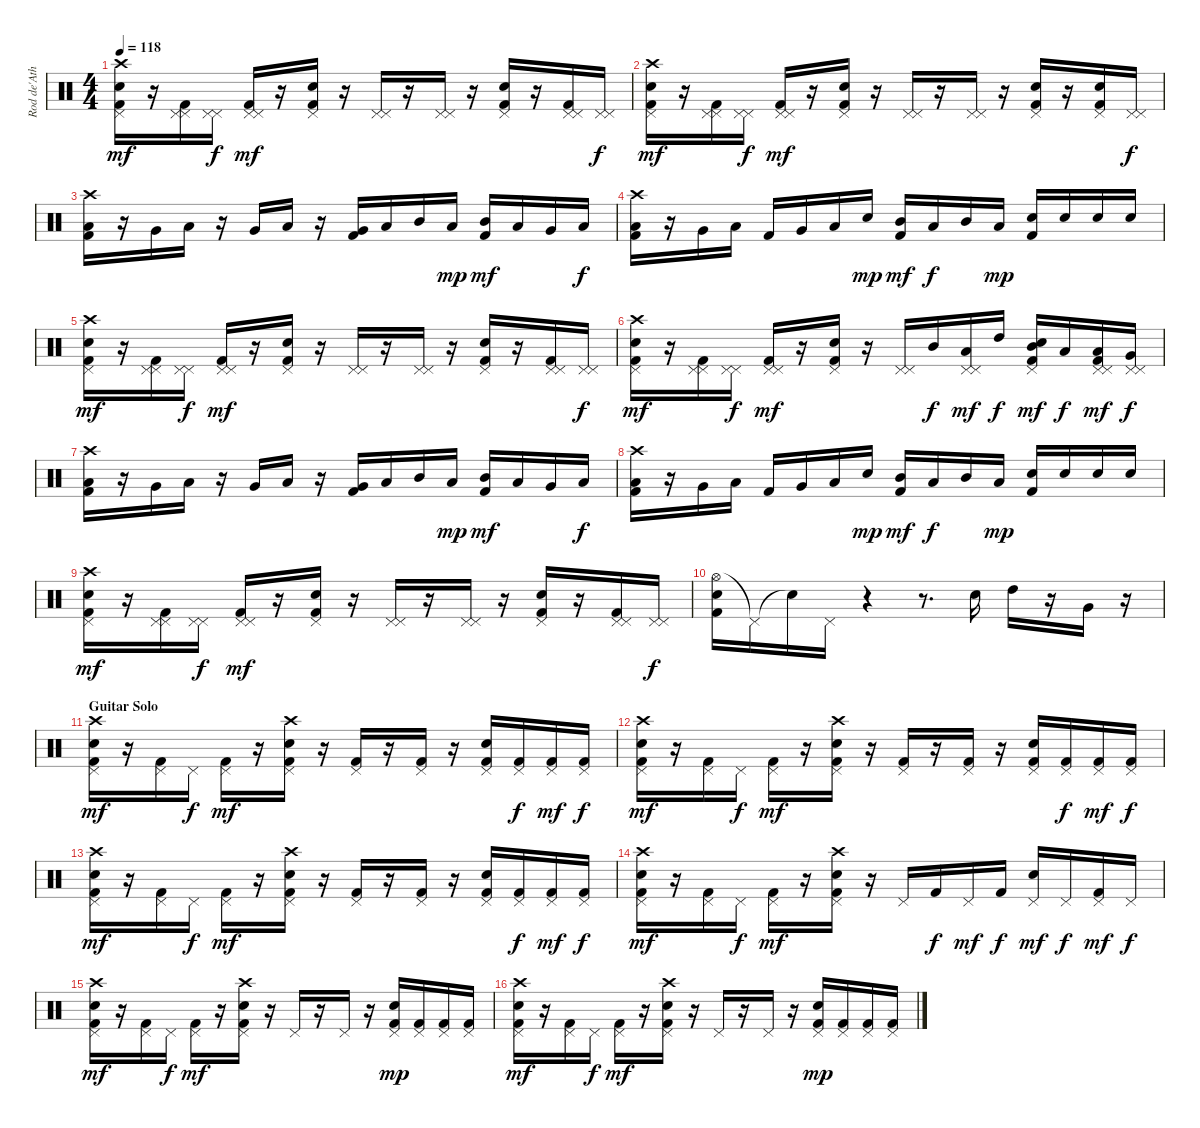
\track ("Rod de'Ath" "Rod de'Ath") {instrument percussion}
\staff {score}
\articulation defaults
\ts (4 4)
\tempo 118
\clef neutral
\ks c
("Crash high (hit)" "Snare (hit) 2" "Pedal Hi-Hat (hit)" "Kick (hit) 2").16{dy mf} r.16 ("Pedal Hi-Hat (hit)" "Pedal Hi-Hat (hit)" "Kick (hit) 2").16 ("Pedal Hi-Hat (hit)" "Pedal Hi-Hat (hit)").16{dy f} ("Pedal Hi-Hat (hit)" "Pedal Hi-Hat (hit)" "Kick (hit) 2").16{dy mf} r.16 ("Snare (hit) 2" "Pedal Hi-Hat (hit)" "Kick (hit) 2").16 r.16 ("Pedal Hi-Hat (hit)" "Pedal Hi-Hat (hit)").16 r.16 ("Pedal Hi-Hat (hit)" "Pedal Hi-Hat (hit)").16 r.16 ("Snare (hit) 2" "Pedal Hi-Hat (hit)" "Kick (hit) 2").16 r.16 ("Pedal Hi-Hat (hit)" "Pedal Hi-Hat (hit)" "Kick (hit) 2").16 ("Pedal Hi-Hat (hit)" "Pedal Hi-Hat (hit)").16{dy f} |
("Crash high (hit)" "Snare (hit) 2" "Pedal Hi-Hat (hit)" "Kick (hit) 2").16{dy mf} r.16 ("Pedal Hi-Hat (hit)" "Pedal Hi-Hat (hit)" "Kick (hit) 2").16 ("Pedal Hi-Hat (hit)" "Pedal Hi-Hat (hit)").16{dy f} ("Pedal Hi-Hat (hit)" "Pedal Hi-Hat (hit)" "Kick (hit) 2").16{dy mf} r.16 ("Snare (hit) 2" "Pedal Hi-Hat (hit)" "Kick (hit) 2").16 r.16 ("Pedal Hi-Hat (hit)" "Pedal Hi-Hat (hit)").16 r.16 ("Pedal Hi-Hat (hit)" "Pedal Hi-Hat (hit)").16 r.16 ("Snare (hit) 2" "Pedal Hi-Hat (hit)" "Kick (hit) 2").16 r.16 ("Snare (hit) 2" "Pedal Hi-Hat (hit)" "Kick (hit) 2").16 ("Pedal Hi-Hat (hit)" "Pedal Hi-Hat (hit)").16{dy f} |
("Crash high (hit)" "Low Tom (hit)" "Kick (hit) 2").16 r.16 "Very Low Tom (hit)".16 "Low Tom (hit)".16 r.16 "Very Low Tom (hit)".16 "Low Tom (hit)".16 r.16 ("Very Low Tom (hit)" "Kick (hit) 2").16 "Low Tom (hit)".16 "Mid Tom (hit)".16 "Low Tom (hit)".16{dy mp} ("Mid Tom (hit)" "Kick (hit) 2").16{dy mf} "Low Tom (hit)".16 "Very Low Tom (hit)".16 "Low Tom (hit)".16{dy f} |
("Crash high (hit)" "Low Tom (hit)" "Kick (hit) 2").16 r.16 "Very Low Tom (hit)".16 "Low Tom (hit)".16 "Kick (hit) 2".16 "Very Low Tom (hit)".16 "Low Tom (hit)".16 "Snare (hit) 2".16{dy mp} ("Mid Tom (hit)" "Kick (hit) 2").16{dy mf} "Low Tom (hit)".16{dy f} "Mid Tom (hit)".16 "Low Tom (hit)".16{dy mp} ("Snare (hit) 2" "Kick (hit) 2").16 "Snare (hit) 2".16 "Snare (hit) 2".16 "Snare (hit) 2".16 |
("Crash high (hit)" "Snare (hit) 2" "Pedal Hi-Hat (hit)" "Kick (hit) 2").16{dy mf} r.16 ("Pedal Hi-Hat (hit)" "Pedal Hi-Hat (hit)" "Kick (hit) 2").16 ("Pedal Hi-Hat (hit)" "Pedal Hi-Hat (hit)").16{dy f} ("Pedal Hi-Hat (hit)" "Pedal Hi-Hat (hit)" "Kick (hit) 2").16{dy mf} r.16 ("Snare (hit) 2" "Pedal Hi-Hat (hit)" "Kick (hit) 2").16 r.16 ("Pedal Hi-Hat (hit)" "Pedal Hi-Hat (hit)").16 r.16 ("Pedal Hi-Hat (hit)" "Pedal Hi-Hat (hit)").16 r.16 ("Snare (hit) 2" "Pedal Hi-Hat (hit)" "Kick (hit) 2").16 r.16 ("Pedal Hi-Hat (hit)" "Pedal Hi-Hat (hit)" "Kick (hit) 2").16 ("Pedal Hi-Hat (hit)" "Pedal Hi-Hat (hit)").16{dy f} |
("Crash high (hit)" "Snare (hit) 2" "Pedal Hi-Hat (hit)" "Kick (hit) 2").16{dy mf} r.16 ("Pedal Hi-Hat (hit)" "Pedal Hi-Hat (hit)" "Kick (hit) 2").16 ("Pedal Hi-Hat (hit)" "Pedal Hi-Hat (hit)").16{dy f} ("Pedal Hi-Hat (hit)" "Pedal Hi-Hat (hit)" "Kick (hit) 2").16{dy mf} r.16 ("Snare (hit) 2" "Pedal Hi-Hat (hit)" "Kick (hit) 2").16 r.16 ("Pedal Hi-Hat (hit)" "Pedal Hi-Hat (hit)").16 "Mid Tom (hit)".16{dy f} ("Pedal Hi-Hat (hit)" "Pedal Hi-Hat (hit)" "Low Tom (hit)").16{dy mf} "High Tom (hit)".16{dy f} ("Snare (hit) 2" "Pedal Hi-Hat (hit)" "Mid Tom (hit)" "Kick (hit) 2").16{dy mf} "Low Tom (hit)".16{dy f} ("Pedal Hi-Hat (hit)" "Pedal Hi-Hat (hit)" "Low Tom (hit)" "Kick (hit) 2").16{dy mf} ("Pedal Hi-Hat (hit)" "Pedal Hi-Hat (hit)" "Very Low Tom (hit)").16{dy f} |
("Crash high (hit)" "Low Tom (hit)" "Kick (hit) 2").16 r.16 "Very Low Tom (hit)".16 "Low Tom (hit)".16 r.16 "Very Low Tom (hit)".16 "Low Tom (hit)".16 r.16 ("Very Low Tom (hit)" "Kick (hit) 2").16 "Low Tom (hit)".16 "Mid Tom (hit)".16 "Low Tom (hit)".16{dy mp} ("Mid Tom (hit)" "Kick (hit) 2").16{dy mf} "Low Tom (hit)".16 "Very Low Tom (hit)".16 "Low Tom (hit)".16{dy f} |
("Crash high (hit)" "Low Tom (hit)" "Kick (hit) 2").16 r.16 "Very Low Tom (hit)".16 "Low Tom (hit)".16 "Kick (hit) 2".16 "Very Low Tom (hit)".16 "Low Tom (hit)".16 "Snare (hit) 2".16{dy mp} ("Mid Tom (hit)" "Kick (hit) 2").16{dy mf} "Low Tom (hit)".16{dy f} "Mid Tom (hit)".16 "Low Tom (hit)".16{dy mp} ("Snare (hit) 2" "Kick (hit) 2").16 "Snare (hit) 2".16 "Snare (hit) 2".16 "Snare (hit) 2".16 |
("Crash high (hit)" "Snare (hit) 2" "Pedal Hi-Hat (hit)" "Kick (hit) 2").16{dy mf} r.16 ("Pedal Hi-Hat (hit)" "Pedal Hi-Hat (hit)" "Kick (hit) 2").16 ("Pedal Hi-Hat (hit)" "Pedal Hi-Hat (hit)").16{dy f} ("Pedal Hi-Hat (hit)" "Pedal Hi-Hat (hit)" "Kick (hit) 2").16{dy mf} r.16 ("Snare (hit) 2" "Pedal Hi-Hat (hit)" "Kick (hit) 2").16 r.16 ("Pedal Hi-Hat (hit)" "Pedal Hi-Hat (hit)").16 r.16 ("Pedal Hi-Hat (hit)" "Pedal Hi-Hat (hit)").16 r.16 ("Snare (hit) 2" "Pedal Hi-Hat (hit)" "Kick (hit) 2").16 r.16 ("Pedal Hi-Hat (hit)" "Pedal Hi-Hat (hit)" "Kick (hit) 2").16 ("Pedal Hi-Hat (hit)" "Pedal Hi-Hat (hit)").16{dy f} |
("Hi-Hat (open)" "Snare (hit) 2" "Kick (hit) 2").16 "Pedal Hi-Hat (hit)"{t}.16 "Snare (hit)"{t}.16 "Pedal Hi-Hat (hit)".16 r.4 r.8{d} "Snare (hit) 2".16 "High Tom (hit)".16 r.16 "Very Low Tom (hit)".16 r.16 |
\section ("" "Guitar Solo")
("Crash high (hit)" "Snare (hit) 2" "Pedal Hi-Hat (hit)" "Kick (hit) 2").16{dy mf} r.16 ("Pedal Hi-Hat (hit)" "Kick (hit) 2").16 "Pedal Hi-Hat (hit)".16{dy f} ("Pedal Hi-Hat (hit)" "Kick (hit) 2").16{dy mf} r.16 ("Crash high (hit)" "Snare (hit) 2" "Pedal Hi-Hat (hit)" "Kick (hit) 2").16 r.16 ("Pedal Hi-Hat (hit)" "Kick (hit) 2").16 r.16 ("Pedal Hi-Hat (hit)" "Kick (hit) 2").16 r.16 ("Snare (hit) 2" "Pedal Hi-Hat (hit)" "Kick (hit) 2").16 ("Pedal Hi-Hat (hit)" "Kick (hit) 2").16{dy f} ("Pedal Hi-Hat (hit)" "Kick (hit) 2").16{dy mf} ("Pedal Hi-Hat (hit)" "Kick (hit) 2").16{dy f} |
("Crash high (hit)" "Snare (hit) 2" "Pedal Hi-Hat (hit)" "Kick (hit) 2").16{dy mf} r.16 ("Pedal Hi-Hat (hit)" "Kick (hit) 2").16 "Pedal Hi-Hat (hit)".16{dy f} ("Pedal Hi-Hat (hit)" "Kick (hit) 2").16{dy mf} r.16 ("Crash high (hit)" "Snare (hit) 2" "Pedal Hi-Hat (hit)" "Kick (hit) 2").16 r.16 ("Pedal Hi-Hat (hit)" "Kick (hit) 2").16 r.16 ("Pedal Hi-Hat (hit)" "Kick (hit) 2").16 r.16 ("Snare (hit) 2" "Pedal Hi-Hat (hit)" "Kick (hit) 2").16 ("Pedal Hi-Hat (hit)" "Kick (hit) 2").16{dy f} ("Pedal Hi-Hat (hit)" "Kick (hit) 2").16{dy mf} ("Pedal Hi-Hat (hit)" "Kick (hit) 2").16{dy f} |
("Crash high (hit)" "Snare (hit) 2" "Pedal Hi-Hat (hit)" "Kick (hit) 2").16{dy mf} r.16 ("Pedal Hi-Hat (hit)" "Kick (hit) 2").16 "Pedal Hi-Hat (hit)".16{dy f} ("Pedal Hi-Hat (hit)" "Kick (hit) 2").16{dy mf} r.16 ("Crash high (hit)" "Snare (hit) 2" "Pedal Hi-Hat (hit)" "Kick (hit) 2").16 r.16 ("Pedal Hi-Hat (hit)" "Kick (hit) 2").16 r.16 ("Pedal Hi-Hat (hit)" "Kick (hit) 2").16 r.16 ("Snare (hit) 2" "Pedal Hi-Hat (hit)" "Kick (hit) 2").16 ("Pedal Hi-Hat (hit)" "Kick (hit) 2").16{dy f} ("Pedal Hi-Hat (hit)" "Kick (hit) 2").16{dy mf} ("Pedal Hi-Hat (hit)" "Kick (hit) 2").16{dy f} |
("Crash high (hit)" "Snare (hit) 2" "Pedal Hi-Hat (hit)" "Kick (hit) 2").16{dy mf} r.16 ("Pedal Hi-Hat (hit)" "Kick (hit) 2").16 "Pedal Hi-Hat (hit)".16{dy f} ("Pedal Hi-Hat (hit)" "Kick (hit) 2").16{dy mf} r.16 ("Crash high (hit)" "Snare (hit) 2" "Pedal Hi-Hat (hit)" "Kick (hit) 2").16 r.16 "Pedal Hi-Hat (hit)".16 "Kick (hit) 2".16{dy f} "Pedal Hi-Hat (hit)".16{dy mf} "Kick (hit) 2".16{dy f} ("Snare (hit) 2" "Pedal Hi-Hat (hit)").16{dy mf} "Pedal Hi-Hat (hit)".16{dy f} ("Pedal Hi-Hat (hit)" "Kick (hit) 2").16{dy mf} "Pedal Hi-Hat (hit)".16{dy f} |
("Crash high (hit)" "Snare (hit) 2" "Pedal Hi-Hat (hit)" "Kick (hit) 2").16{dy mf} r.16 ("Pedal Hi-Hat (hit)" "Kick (hit) 2").16 "Pedal Hi-Hat (hit)".16{dy f} ("Pedal Hi-Hat (hit)" "Kick (hit) 2").16{dy mf} r.16 ("Crash high (hit)" "Snare (hit) 2" "Pedal Hi-Hat (hit)" "Kick (hit) 2").16 r.16 "Pedal Hi-Hat (hit)".16 r.16 "Pedal Hi-Hat (hit)".16 r.16 ("Snare (hit) 2" "Pedal Hi-Hat (hit)" "Kick (hit) 2").16{dy mp} ("Pedal Hi-Hat (hit)" "Kick (hit) 2").16 ("Pedal Hi-Hat (hit)" "Kick (hit) 2").16 ("Pedal Hi-Hat (hit)" "Kick (hit) 2").16 |
("Crash high (hit)" "Snare (hit) 2" "Pedal Hi-Hat (hit)" "Kick (hit) 2").16{dy mf} r.16 ("Pedal Hi-Hat (hit)" "Kick (hit) 2").16 "Pedal Hi-Hat (hit)".16{dy f} ("Pedal Hi-Hat (hit)" "Kick (hit) 2").16{dy mf} r.16 ("Crash high (hit)" "Snare (hit) 2" "Pedal Hi-Hat (hit)" "Kick (hit) 2").16 r.16 "Pedal Hi-Hat (hit)".16 r.16 "Pedal Hi-Hat (hit)".16 r.16 ("Snare (hit) 2" "Pedal Hi-Hat (hit)" "Kick (hit) 2").16{dy mp} ("Pedal Hi-Hat (hit)" "Kick (hit) 2").16 ("Pedal Hi-Hat (hit)" "Kick (hit) 2").16 ("Pedal Hi-Hat (hit)" "Kick (hit) 2").16
